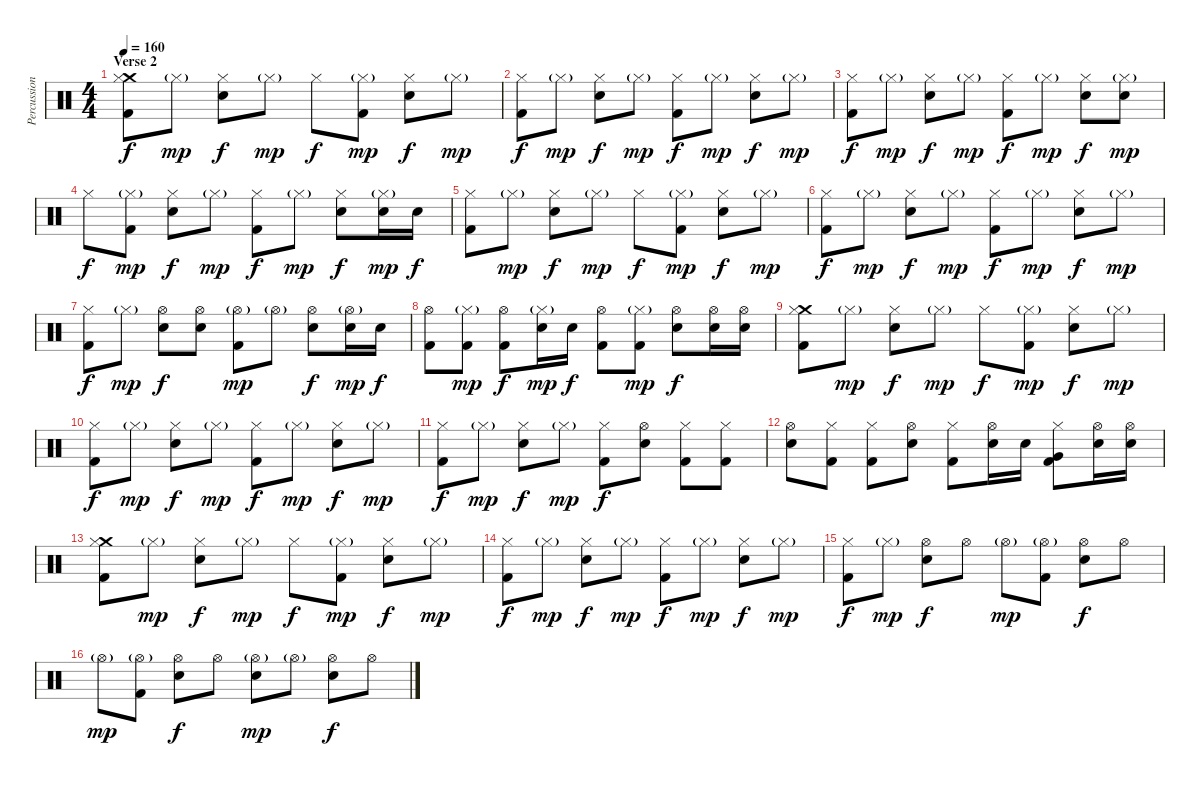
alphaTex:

\track ("Percussions" "Percussion") {instrument percussion}
\staff {score}
\articulation defaults
\ts (4 4)
\section ("" "Verse 2")
\tempo 160
\clef neutral
\ks c
("Crash medium (hit)" "Hi-Hat (closed)" "Kick (hit) 2").8{dy f} "Hi-Hat (closed)"{g}.8{dy mp} ("Hi-Hat (closed)" "Snare (hit) 2").8{dy f} "Hi-Hat (closed)"{g}.8{dy mp} "Hi-Hat (closed)".8{dy f} ("Hi-Hat (closed)"{g} "Kick (hit) 2").8{dy mp} ("Hi-Hat (closed)" "Snare (hit) 2").8{dy f} "Hi-Hat (closed)"{g}.8{dy mp} |
("Hi-Hat (closed)" "Kick (hit) 2").8{dy f} "Hi-Hat (closed)"{g}.8{dy mp} ("Hi-Hat (closed)" "Snare (hit) 2").8{dy f} "Hi-Hat (closed)"{g}.8{dy mp} ("Hi-Hat (closed)" "Kick (hit) 2").8{dy f} "Hi-Hat (closed)"{g}.8{dy mp} ("Hi-Hat (closed)" "Snare (hit) 2").8{dy f} "Hi-Hat (closed)"{g}.8{dy mp} |
("Hi-Hat (closed)" "Kick (hit) 2").8{dy f} "Hi-Hat (closed)"{g}.8{dy mp} ("Hi-Hat (closed)" "Snare (hit) 2").8{dy f} "Hi-Hat (closed)"{g}.8{dy mp} ("Hi-Hat (closed)" "Kick (hit) 2").8{dy f} "Hi-Hat (closed)"{g}.8{dy mp} ("Hi-Hat (closed)" "Snare (hit) 2").8{dy f} ("Hi-Hat (closed)"{g} "Snare (hit) 2").8{dy mp} |
"Hi-Hat (closed)".8{dy f} ("Hi-Hat (closed)"{g} "Kick (hit) 2").8{dy mp} ("Hi-Hat (closed)" "Snare (hit) 2").8{dy f} "Hi-Hat (closed)"{g}.8{dy mp} ("Hi-Hat (closed)" "Kick (hit) 2").8{dy f} "Hi-Hat (closed)"{g}.8{dy mp} ("Hi-Hat (closed)" "Snare (hit) 2").8{dy f} ("Hi-Hat (closed)"{g} "Snare (hit) 2").16{dy mp} "Snare (hit) 2".16{dy f} |
("Hi-Hat (closed)" "Kick (hit) 2").8 "Hi-Hat (closed)"{g}.8{dy mp} ("Hi-Hat (closed)" "Snare (hit) 2").8{dy f} "Hi-Hat (closed)"{g}.8{dy mp} "Hi-Hat (closed)".8{dy f} ("Hi-Hat (closed)"{g} "Kick (hit) 2").8{dy mp} ("Hi-Hat (closed)" "Snare (hit) 2").8{dy f} "Hi-Hat (closed)"{g}.8{dy mp} |
("Hi-Hat (closed)" "Kick (hit) 2").8{dy f} "Hi-Hat (closed)"{g}.8{dy mp} ("Hi-Hat (closed)" "Snare (hit) 2").8{dy f} "Hi-Hat (closed)"{g}.8{dy mp} ("Hi-Hat (closed)" "Kick (hit) 2").8{dy f} "Hi-Hat (closed)"{g}.8{dy mp} ("Hi-Hat (closed)" "Snare (hit) 2").8{dy f} "Hi-Hat (closed)"{g}.8{dy mp} |
("Hi-Hat (closed)" "Kick (hit) 2").8{dy f} "Hi-Hat (closed)"{g}.8{dy mp} ("Hi-Hat (open)" "Snare (hit) 2").8{dy f} ("Hi-Hat (open)" "Snare (hit) 2").8 ("Hi-Hat (open)"{g} "Kick (hit) 2").8{dy mp} "Hi-Hat (open)"{g}.8 ("Hi-Hat (open)" "Snare (hit) 2").8{dy f} ("Hi-Hat (open)"{g} "Snare (hit) 2").16{dy mp} "Snare (hit) 2".16{dy f} |
("Hi-Hat (open)" "Kick (hit) 2").8 ("Hi-Hat (closed)"{g} "Kick (hit) 2").8{dy mp} ("Hi-Hat (open)" "Kick (hit) 2").8{dy f} ("Hi-Hat (closed)"{g} "Snare (hit) 2").16{dy mp} "Snare (hit) 2".16{dy f} ("Hi-Hat (open)" "Kick (hit) 2").8 ("Hi-Hat (closed)"{g} "Kick (hit) 2").8{dy mp} ("Hi-Hat (open)" "Snare (hit) 2").8{dy f} ("Hi-Hat (open)" "Snare (hit) 2").16 ("Hi-Hat (open)" "Snare (hit) 2").16 |
("Crash medium (hit)" "Hi-Hat (closed)" "Kick (hit) 2").8 "Hi-Hat (closed)"{g}.8{dy mp} ("Hi-Hat (closed)" "Snare (hit) 2").8{dy f} "Hi-Hat (closed)"{g}.8{dy mp} "Hi-Hat (closed)".8{dy f} ("Hi-Hat (closed)"{g} "Kick (hit) 2").8{dy mp} ("Hi-Hat (closed)" "Snare (hit) 2").8{dy f} "Hi-Hat (closed)"{g}.8{dy mp} |
("Hi-Hat (closed)" "Kick (hit) 2").8{dy f} "Hi-Hat (closed)"{g}.8{dy mp} ("Hi-Hat (closed)" "Snare (hit) 2").8{dy f} "Hi-Hat (closed)"{g}.8{dy mp} ("Hi-Hat (closed)" "Kick (hit) 2").8{dy f} "Hi-Hat (closed)"{g}.8{dy mp} ("Hi-Hat (closed)" "Snare (hit) 2").8{dy f} "Hi-Hat (closed)"{g}.8{dy mp} |
("Hi-Hat (closed)" "Kick (hit) 2").8{dy f} "Hi-Hat (closed)"{g}.8{dy mp} ("Hi-Hat (closed)" "Snare (hit) 2").8{dy f} "Hi-Hat (closed)"{g}.8{dy mp} ("Hi-Hat (closed)" "Kick (hit) 2").8{dy f} ("Hi-Hat (open)" "Snare (hit) 2").8 ("Hi-Hat (closed)" "Kick (hit) 2").8 ("Hi-Hat (closed)" "Kick (hit) 2").8 |
("Hi-Hat (open)" "Snare (hit) 2").8 ("Hi-Hat (closed)" "Kick (hit) 2").8 ("Hi-Hat (closed)" "Kick (hit) 2").8 ("Hi-Hat (open)" "Snare (hit) 2").8 ("Hi-Hat (closed)" "Kick (hit) 2").8 ("Hi-Hat (open)" "Snare (hit) 2").16 "Snare (hit) 2".16 ("Hi-Hat (closed)" "Very Low Tom (hit)" "Kick (hit) 2").8 ("Hi-Hat (open)" "Snare (hit) 2").16 ("Hi-Hat (open)" "Snare (hit) 2").16 |
("Crash medium (hit)" "Hi-Hat (closed)" "Kick (hit) 2").8 "Hi-Hat (closed)"{g}.8{dy mp} ("Hi-Hat (closed)" "Snare (hit) 2").8{dy f} "Hi-Hat (closed)"{g}.8{dy mp} "Hi-Hat (closed)".8{dy f} ("Hi-Hat (closed)"{g} "Kick (hit) 2").8{dy mp} ("Hi-Hat (closed)" "Snare (hit) 2").8{dy f} "Hi-Hat (closed)"{g}.8{dy mp} |
("Hi-Hat (closed)" "Kick (hit) 2").8{dy f} "Hi-Hat (closed)"{g}.8{dy mp} ("Hi-Hat (closed)" "Snare (hit) 2").8{dy f} "Hi-Hat (closed)"{g}.8{dy mp} ("Hi-Hat (closed)" "Kick (hit) 2").8{dy f} "Hi-Hat (closed)"{g}.8{dy mp} ("Hi-Hat (closed)" "Snare (hit) 2").8{dy f} "Hi-Hat (closed)"{g}.8{dy mp} |
("Hi-Hat (closed)" "Kick (hit) 2").8{dy f} "Hi-Hat (closed)"{g}.8{dy mp} ("Hi-Hat (open)" "Snare (hit) 2").8{dy f} "Hi-Hat (open)".8 "Hi-Hat (open)"{g}.8{dy mp} ("Hi-Hat (open)"{g} "Kick (hit) 2").8 ("Hi-Hat (open)" "Snare (hit) 2").8{dy f} "Hi-Hat (open)".8 |
"Hi-Hat (open)"{g}.8{dy mp} ("Hi-Hat (open)"{g} "Kick (hit) 2").8 ("Hi-Hat (open)" "Snare (hit) 2").8{dy f} "Hi-Hat (open)".8 ("Hi-Hat (open)"{g} "Snare (hit) 2").8{dy mp} "Hi-Hat (open)"{g}.8 ("Hi-Hat (open)" "Snare (hit) 2").8{dy f} "Hi-Hat (open)".8
